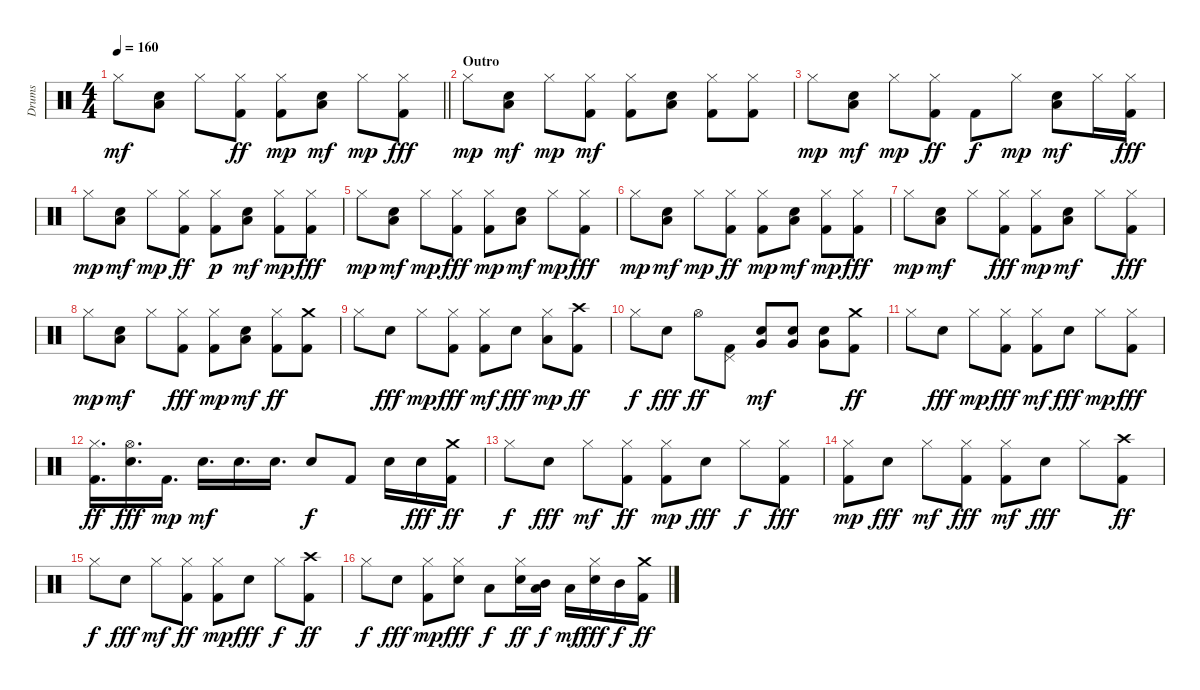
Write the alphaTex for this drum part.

\track ("Drums" "Drums") {instrument percussion}
\staff {score}
\articulation defaults
\ts (4 4)
\tempo 160
\clef neutral
\barLineRight lightlight
\ks c "Hi-Hat (closed)".8{dy mf}
("Electric Snare (hit)" "Low Tom (hit)").8 "Hi-Hat (closed)".8 ("Kick (hit) 2" "Hi-Hat (closed)").8{dy ff} ("Kick (hit) 2" "Hi-Hat (closed)").8{dy mp} ("Electric Snare (hit)" "Low Tom (hit)").8{dy mf} "Hi-Hat (closed)".8{dy mp} ("Kick (hit) 2" "Hi-Hat (closed)").8{dy fff} |
\section ("" "Outro")
"Hi-Hat (closed)".8{dy mp} ("Electric Snare (hit)" "Low Tom (hit)").8{dy mf} "Hi-Hat (closed)".8{dy mp} ("Kick (hit) 2" "Hi-Hat (closed)").8{dy mf} ("Kick (hit) 2" "Hi-Hat (closed)").8 ("Electric Snare (hit)" "Low Tom (hit)").8 ("Kick (hit) 2" "Hi-Hat (closed)").8 ("Kick (hit) 2" "Hi-Hat (closed)").8 |
"Hi-Hat (closed)".8{dy mp} ("Electric Snare (hit)" "Low Tom (hit)").8{dy mf} "Hi-Hat (closed)".8{dy mp} ("Kick (hit) 2" "Hi-Hat (closed)").8{dy ff} "Kick (hit) 2".8{dy f} "Hi-Hat (closed)".8{dy mp} ("Electric Snare (hit)" "Low Tom (hit)").8{dy mf} "Hi-Hat (closed)".16 ("Kick (hit) 2" "Hi-Hat (closed)").16{dy fff} |
"Hi-Hat (closed)".8{dy mp} ("Electric Snare (hit)" "Low Tom (hit)").8{dy mf} "Hi-Hat (closed)".8{dy mp} ("Kick (hit) 2" "Hi-Hat (closed)").8{dy ff} ("Kick (hit) 2" "Hi-Hat (closed)").8{dy p} ("Electric Snare (hit)" "Low Tom (hit)").8{dy mf} ("Kick (hit) 2" "Hi-Hat (closed)").8{dy mp} ("Kick (hit) 2" "Hi-Hat (closed)").8{dy fff} |
"Hi-Hat (closed)".8{dy mp} ("Electric Snare (hit)" "Low Tom (hit)").8{dy mf} "Hi-Hat (closed)".8{dy mp} ("Kick (hit) 2" "Hi-Hat (closed)").8{dy fff} ("Kick (hit) 2" "Hi-Hat (closed)").8{dy mp} ("Electric Snare (hit)" "Low Tom (hit)").8{dy mf} "Hi-Hat (closed)".8{dy mp} ("Kick (hit) 2" "Hi-Hat (closed)").8{dy fff} |
"Hi-Hat (closed)".8{dy mp} ("Electric Snare (hit)" "Low Tom (hit)").8{dy mf} "Hi-Hat (closed)".8{dy mp} ("Kick (hit) 2" "Hi-Hat (closed)").8{dy ff} ("Kick (hit) 2" "Hi-Hat (closed)").8{dy mp} ("Electric Snare (hit)" "Low Tom (hit)").8{dy mf} ("Kick (hit) 2" "Hi-Hat (closed)").8{dy mp} ("Kick (hit) 2" "Hi-Hat (closed)").8{dy fff} |
"Hi-Hat (closed)".8{dy mp} ("Electric Snare (hit)" "Low Tom (hit)").8{dy mf} "Hi-Hat (closed)".8 ("Kick (hit) 2" "Hi-Hat (closed)").8{dy fff} ("Kick (hit) 2" "Hi-Hat (closed)").8{dy mp} ("Electric Snare (hit)" "Low Tom (hit)").8{dy mf} "Hi-Hat (closed)".8 ("Kick (hit) 2" "Hi-Hat (closed)").8{dy fff} |
"Hi-Hat (closed)".8{dy mp} ("Electric Snare (hit)" "Low Tom (hit)").8{dy mf} "Hi-Hat (closed)".8 ("Kick (hit) 2" "Hi-Hat (closed)").8{dy fff} ("Kick (hit) 2" "Hi-Hat (closed)").8{dy mp} ("Electric Snare (hit)" "Low Tom (hit)").8{dy mf} ("Kick (hit) 2" "Hi-Hat (closed)").8{dy ff} ("Kick (hit) 2" "Crash medium (hit)").8 |
"Hi-Hat (closed)".8 "Electric Snare (hit)".8{dy fff} "Hi-Hat (closed)".8{dy mp} ("Kick (hit) 2" "Hi-Hat (closed)").8{dy fff} ("Kick (hit) 2" "Hi-Hat (closed)").8{dy mf} "Electric Snare (hit)".8{dy fff} ("Hi-Hat (closed)" "Low Tom (hit)").8{dy mp} ("Kick (hit) 2" "Crash high (hit)").8{dy ff} |
"Hi-Hat (closed)".8{dy f} "Electric Snare (hit)".8{dy fff} "Hi-Hat (open)".8{dy ff} ("Kick (hit) 2" "Pedal Hi-Hat (hit)").8 ("Electric Snare (hit)" "Very Low Tom (hit)").8{dy mf} ("Electric Snare (hit)" "Very Low Tom (hit)").8 ("Electric Snare (hit)" "Very Low Tom (hit)").8 ("Kick (hit) 2" "Crash medium (hit)").8{dy ff} |
"Hi-Hat (closed)".8 "Electric Snare (hit)".8{dy fff} "Hi-Hat (closed)".8{dy mp} ("Kick (hit) 2" "Hi-Hat (closed)").8{dy fff} ("Kick (hit) 2" "Hi-Hat (closed)").8{dy mf} "Electric Snare (hit)".8{dy fff} "Hi-Hat (closed)".8{dy mp} ("Kick (hit) 2" "Hi-Hat (closed)").8{dy fff} |
("Kick (hit) 2" "Hi-Hat (closed)").16{d dy ff} ("Electric Snare (hit)" "Hi-Hat (open)").16{d dy fff} "Kick (hit) 2".16{d dy mp} "Electric Snare (hit)".16{d dy mf} "Electric Snare (hit)".16{d} "Electric Snare (hit)".16{d} "Electric Snare (hit)".8{dy f} "Kick (hit) 2".8 "Electric Snare (hit)".16 "Electric Snare (hit)".16{dy fff} ("Kick (hit) 2" "Crash medium (hit)").16{dy ff} |
"Hi-Hat (closed)".8{dy f} "Electric Snare (hit)".8{dy fff} "Hi-Hat (closed)".8{dy mf} ("Kick (hit) 2" "Hi-Hat (closed)").8{dy ff} ("Kick (hit) 2" "Hi-Hat (closed)").8{dy mp} "Electric Snare (hit)".8{dy fff} "Hi-Hat (closed)".8{dy f} ("Kick (hit) 2" "Hi-Hat (closed)").8{dy fff} |
("Kick (hit) 2" "Hi-Hat (closed)").8{dy mp} "Electric Snare (hit)".8{dy fff} "Hi-Hat (closed)".8{dy mf} ("Kick (hit) 2" "Hi-Hat (closed)").8{dy fff} ("Kick (hit) 2" "Hi-Hat (closed)").8{dy mf} "Electric Snare (hit)".8{dy fff} "Hi-Hat (closed)".8 ("Kick (hit) 2" "Crash high (hit)").8{dy ff} |
"Hi-Hat (closed)".8{dy f} "Electric Snare (hit)".8{dy fff} "Hi-Hat (closed)".8{dy mf} ("Kick (hit) 2" "Hi-Hat (closed)").8{dy ff} ("Kick (hit) 2" "Hi-Hat (closed)").8{dy mp} "Electric Snare (hit)".8{dy fff} "Hi-Hat (closed)".8{dy f} ("Kick (hit) 2" "Crash high (hit)").8{dy ff} |
"Hi-Hat (closed)".8{dy f} "Electric Snare (hit)".8{dy fff} ("Kick (hit) 2" "Hi-Hat (closed)").8{dy mp} ("Electric Snare (hit)" "Hi-Hat (closed)").8{dy fff} "Low Tom (hit)".8{dy f} ("Electric Snare (hit)" "Hi-Hat (closed)").16{dy ff} ("Low Tom (hit)" "Mid Tom (hit)").16{dy f} "Low Tom (hit)".16{dy mf} ("Electric Snare (hit)" "Hi-Hat (closed)").16{dy fff} "Mid Tom (hit)".16{dy f} ("Kick (hit) 2" "Crash medium (hit)").16{dy ff}
